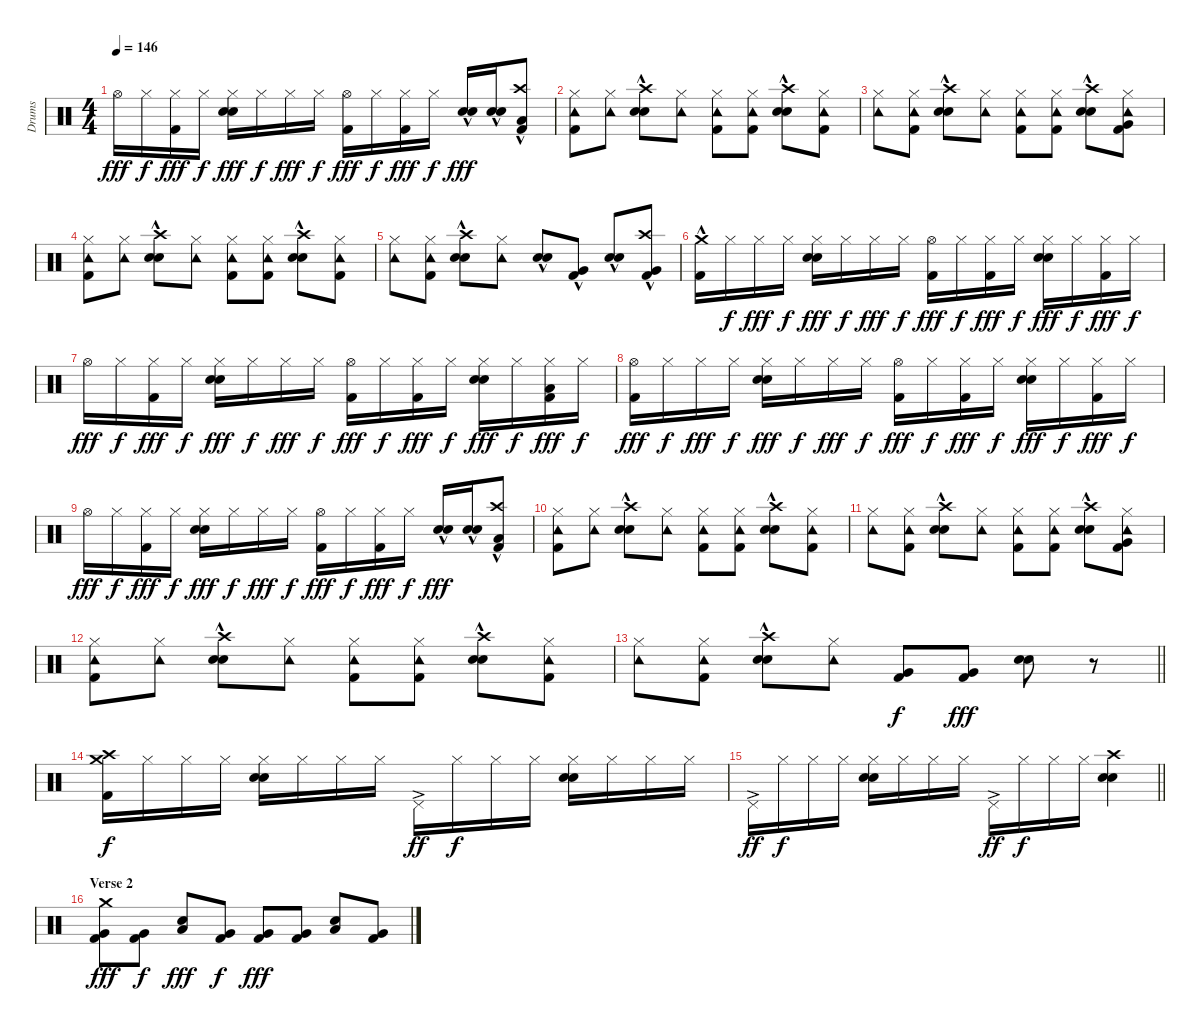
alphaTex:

\track ("Drums" "Drums") {instrument percussion}
\staff {score}
\articulation defaults
\ts (4 4)
\tempo 146
\clef neutral
\ks c "Hi-Hat (open)".16{dy fff} "Hi-Hat (closed)".16{dy f}
("Hi-Hat (closed)" "Kick (hit) 2").16{dy fff} "Hi-Hat (closed)".16{dy f} ("Hi-Hat (closed)" "Electric Snare (hit)" "Electric Snare (hit)").16{dy fff} "Hi-Hat (closed)".16{dy f} "Hi-Hat (closed)".16{dy fff} "Hi-Hat (closed)".16{dy f} ("Hi-Hat (open)" "Kick (hit) 2").16{dy fff} "Hi-Hat (closed)".16{dy f} ("Hi-Hat (closed)" "Kick (hit) 2").16{dy fff} "Hi-Hat (closed)".16{dy f} ("Electric Snare (hit)"{hac} "Electric Snare (hit)"{hac}).16{dy fff} ("Electric Snare (hit)"{hac} "Electric Snare (hit)"{hac}).16 ("Crash high (hit)"{hac} "Low Tom (hit)"{hac} "Kick (hit) 2"{hac}).8 |
("Tambourine (hit)" "Hi-Hat (closed)" "Kick (hit) 2").8 ("Tambourine (hit)" "Hi-Hat (closed)").8 ("Crash high (hit)"{hac} "Electric Snare (hit)" "Electric Snare (hit)").8 ("Tambourine (hit)" "Hi-Hat (closed)").8 ("Tambourine (hit)" "Hi-Hat (closed)" "Kick (hit) 2").8 ("Tambourine (hit)" "Hi-Hat (closed)" "Kick (hit) 2").8 ("Crash high (hit)"{hac} "Electric Snare (hit)" "Electric Snare (hit)").8 ("Tambourine (hit)" "Hi-Hat (closed)" "Kick (hit) 2").8 |
("Tambourine (hit)" "Hi-Hat (closed)").8 ("Tambourine (hit)" "Hi-Hat (closed)" "Kick (hit) 2").8 ("Crash high (hit)"{hac} "Electric Snare (hit)" "Electric Snare (hit)").8 ("Tambourine (hit)" "Hi-Hat (closed)").8 ("Tambourine (hit)" "Hi-Hat (closed)" "Kick (hit) 2").8 ("Tambourine (hit)" "Hi-Hat (closed)" "Kick (hit) 2").8 ("Crash high (hit)"{hac} "Electric Snare (hit)" "Electric Snare (hit)").8 ("Tambourine (hit)" "Hi-Hat (closed)" "Very Low Tom (hit)" "Kick (hit) 2").8 |
("Tambourine (hit)" "Hi-Hat (closed)" "Kick (hit) 2").8 ("Tambourine (hit)" "Hi-Hat (closed)").8 ("Crash high (hit)"{hac} "Electric Snare (hit)" "Electric Snare (hit)").8 ("Tambourine (hit)" "Hi-Hat (closed)").8 ("Tambourine (hit)" "Hi-Hat (closed)" "Kick (hit) 2").8 ("Tambourine (hit)" "Hi-Hat (closed)" "Kick (hit) 2").8 ("Crash high (hit)"{hac} "Electric Snare (hit)" "Electric Snare (hit)").8 ("Tambourine (hit)" "Hi-Hat (closed)" "Kick (hit) 2").8 |
("Tambourine (hit)" "Hi-Hat (closed)").8 ("Tambourine (hit)" "Hi-Hat (closed)" "Kick (hit) 2").8 ("Crash high (hit)"{hac} "Electric Snare (hit)" "Electric Snare (hit)").8 ("Tambourine (hit)" "Hi-Hat (closed)").8 ("Electric Snare (hit)"{hac} "Electric Snare (hit)"{hac}).8 ("Very Low Tom (hit)"{hac} "Kick (hit) 2"{hac}).8 ("Electric Snare (hit)"{hac} "Electric Snare (hit)"{hac}).8 ("Crash high (hit)"{hac} "Very Low Tom (hit)"{hac} "Kick (hit) 2"{hac}).8 |
("Crash medium (hit)"{hac} "Kick (hit) 2"{hac}).16 "Hi-Hat (closed)".16{dy f} "Hi-Hat (closed)".16{dy fff} "Hi-Hat (closed)".16{dy f} ("Hi-Hat (closed)" "Electric Snare (hit)" "Electric Snare (hit)").16{dy fff} "Hi-Hat (closed)".16{dy f} "Hi-Hat (closed)".16{dy fff} "Hi-Hat (closed)".16{dy f} ("Hi-Hat (open)" "Kick (hit) 2").16{dy fff} "Hi-Hat (closed)".16{dy f} ("Hi-Hat (closed)" "Kick (hit) 2").16{dy fff} "Hi-Hat (closed)".16{dy f} ("Hi-Hat (closed)" "Electric Snare (hit)" "Electric Snare (hit)").16{dy fff} "Hi-Hat (closed)".16{dy f} ("Hi-Hat (closed)" "Kick (hit) 2").16{dy fff} "Hi-Hat (closed)".16{dy f} |
"Hi-Hat (open)".16{dy fff} "Hi-Hat (closed)".16{dy f} ("Hi-Hat (closed)" "Kick (hit) 2").16{dy fff} "Hi-Hat (closed)".16{dy f} ("Hi-Hat (closed)" "Electric Snare (hit)" "Electric Snare (hit)").16{dy fff} "Hi-Hat (closed)".16{dy f} "Hi-Hat (closed)".16{dy fff} "Hi-Hat (closed)".16{dy f} ("Hi-Hat (open)" "Kick (hit) 2").16{dy fff} "Hi-Hat (closed)".16{dy f} ("Hi-Hat (closed)" "Kick (hit) 2").16{dy fff} "Hi-Hat (closed)".16{dy f} ("Hi-Hat (closed)" "Electric Snare (hit)" "Electric Snare (hit)").16{dy fff} "Hi-Hat (closed)".16{dy f} ("Hi-Hat (closed)" "Low Tom (hit)" "Kick (hit) 2").16{dy fff} "Hi-Hat (closed)".16{dy f} |
("Hi-Hat (open)" "Kick (hit) 2").16{dy fff} "Hi-Hat (closed)".16{dy f} "Hi-Hat (closed)".16{dy fff} "Hi-Hat (closed)".16{dy f} ("Hi-Hat (closed)" "Electric Snare (hit)" "Electric Snare (hit)").16{dy fff} "Hi-Hat (closed)".16{dy f} "Hi-Hat (closed)".16{dy fff} "Hi-Hat (closed)".16{dy f} ("Hi-Hat (open)" "Kick (hit) 2").16{dy fff} "Hi-Hat (closed)".16{dy f} ("Hi-Hat (closed)" "Kick (hit) 2").16{dy fff} "Hi-Hat (closed)".16{dy f} ("Hi-Hat (closed)" "Electric Snare (hit)" "Electric Snare (hit)").16{dy fff} "Hi-Hat (closed)".16{dy f} ("Hi-Hat (closed)" "Kick (hit) 2").16{dy fff} "Hi-Hat (closed)".16{dy f} |
"Hi-Hat (open)".16{dy fff} "Hi-Hat (closed)".16{dy f} ("Hi-Hat (closed)" "Kick (hit) 2").16{dy fff} "Hi-Hat (closed)".16{dy f} ("Hi-Hat (closed)" "Electric Snare (hit)" "Electric Snare (hit)").16{dy fff} "Hi-Hat (closed)".16{dy f} "Hi-Hat (closed)".16{dy fff} "Hi-Hat (closed)".16{dy f} ("Hi-Hat (open)" "Kick (hit) 2").16{dy fff} "Hi-Hat (closed)".16{dy f} ("Hi-Hat (closed)" "Kick (hit) 2").16{dy fff} "Hi-Hat (closed)".16{dy f} ("Electric Snare (hit)"{hac} "Electric Snare (hit)"{hac}).16{dy fff} ("Electric Snare (hit)"{hac} "Electric Snare (hit)"{hac}).16 ("Crash high (hit)"{hac} "Low Tom (hit)"{hac} "Kick (hit) 2"{hac}).8 |
("Tambourine (hit)" "Hi-Hat (closed)" "Kick (hit) 2").8 ("Tambourine (hit)" "Hi-Hat (closed)").8 ("Crash high (hit)"{hac} "Electric Snare (hit)" "Electric Snare (hit)").8 ("Tambourine (hit)" "Hi-Hat (closed)").8 ("Tambourine (hit)" "Hi-Hat (closed)" "Kick (hit) 2").8 ("Tambourine (hit)" "Hi-Hat (closed)" "Kick (hit) 2").8 ("Crash high (hit)"{hac} "Electric Snare (hit)" "Electric Snare (hit)").8 ("Tambourine (hit)" "Hi-Hat (closed)" "Kick (hit) 2").8 |
("Tambourine (hit)" "Hi-Hat (closed)").8 ("Tambourine (hit)" "Hi-Hat (closed)" "Kick (hit) 2").8 ("Crash high (hit)"{hac} "Electric Snare (hit)" "Electric Snare (hit)").8 ("Tambourine (hit)" "Hi-Hat (closed)").8 ("Tambourine (hit)" "Hi-Hat (closed)" "Kick (hit) 2").8 ("Tambourine (hit)" "Hi-Hat (closed)" "Kick (hit) 2").8 ("Crash high (hit)"{hac} "Electric Snare (hit)" "Electric Snare (hit)").8 ("Tambourine (hit)" "Hi-Hat (closed)" "Very Low Tom (hit)" "Kick (hit) 2").8 |
("Tambourine (hit)" "Hi-Hat (closed)" "Kick (hit) 2").8 ("Tambourine (hit)" "Hi-Hat (closed)").8 ("Crash high (hit)"{hac} "Electric Snare (hit)" "Electric Snare (hit)").8 ("Tambourine (hit)" "Hi-Hat (closed)").8 ("Tambourine (hit)" "Hi-Hat (closed)" "Kick (hit) 2").8 ("Tambourine (hit)" "Hi-Hat (closed)" "Kick (hit) 2").8 ("Crash high (hit)"{hac} "Electric Snare (hit)" "Electric Snare (hit)").8 ("Tambourine (hit)" "Hi-Hat (closed)" "Kick (hit) 2").8 |
\barLineRight lightlight
("Tambourine (hit)" "Hi-Hat (closed)").8 ("Tambourine (hit)" "Hi-Hat (closed)" "Kick (hit) 2").8 ("Crash high (hit)"{hac} "Electric Snare (hit)" "Electric Snare (hit)").8 ("Tambourine (hit)" "Hi-Hat (closed)").8 ("Very Low Tom (hit)" "Kick (hit) 2").8{dy f} ("Very Low Tom (hit)" "Kick (hit) 2").8{dy fff} ("Electric Snare (hit)" "Electric Snare (hit)").8 r.8 |
("Crash high (hit)" "Crash medium (hit)" "Kick (hit) 2").16{dy f} "Hi-Hat (closed)".16 "Hi-Hat (closed)".16 "Hi-Hat (closed)".16 ("Hi-Hat (closed)" "Electric Snare (hit)" "Electric Snare (hit)").16 "Hi-Hat (closed)".16 "Hi-Hat (closed)".16 "Hi-Hat (closed)".16 "Pedal Hi-Hat (hit)"{ac}.16{dy ff} "Hi-Hat (closed)".16{dy f} "Hi-Hat (closed)".16 "Hi-Hat (closed)".16 ("Hi-Hat (closed)" "Electric Snare (hit)" "Electric Snare (hit)").16 "Hi-Hat (closed)".16 "Hi-Hat (closed)".16 "Hi-Hat (closed)".16 |
\barLineRight lightlight "Pedal Hi-Hat (hit)"{ac}.16{dy ff} "Hi-Hat (closed)".16{dy f} "Hi-Hat (closed)".16 "Hi-Hat (closed)".16
("Hi-Hat (closed)" "Electric Snare (hit)" "Electric Snare (hit)").16 "Hi-Hat (closed)".16 "Hi-Hat (closed)".16 "Hi-Hat (closed)".16 "Pedal Hi-Hat (hit)"{ac}.16{dy ff} "Hi-Hat (closed)".16{dy f} "Hi-Hat (closed)".16 "Hi-Hat (closed)".16 ("Crash high (hit)" "Electric Snare (hit)" "Electric Snare (hit)").4 |
\section ("" "Verse 2")
("Crash medium (hit)" "Very Low Tom (hit)" "Kick (hit) 2").8{dy fff} ("Very Low Tom (hit)" "Kick (hit) 2").8{dy f} ("Electric Snare (hit)" "Low Tom (hit)").8{dy fff} ("Very Low Tom (hit)" "Kick (hit) 2").8{dy f} ("Very Low Tom (hit)" "Kick (hit) 2").8{dy fff} ("Very Low Tom (hit)" "Kick (hit) 2").8 ("Electric Snare (hit)" "Low Tom (hit)").8 ("Very Low Tom (hit)" "Kick (hit) 2").8
